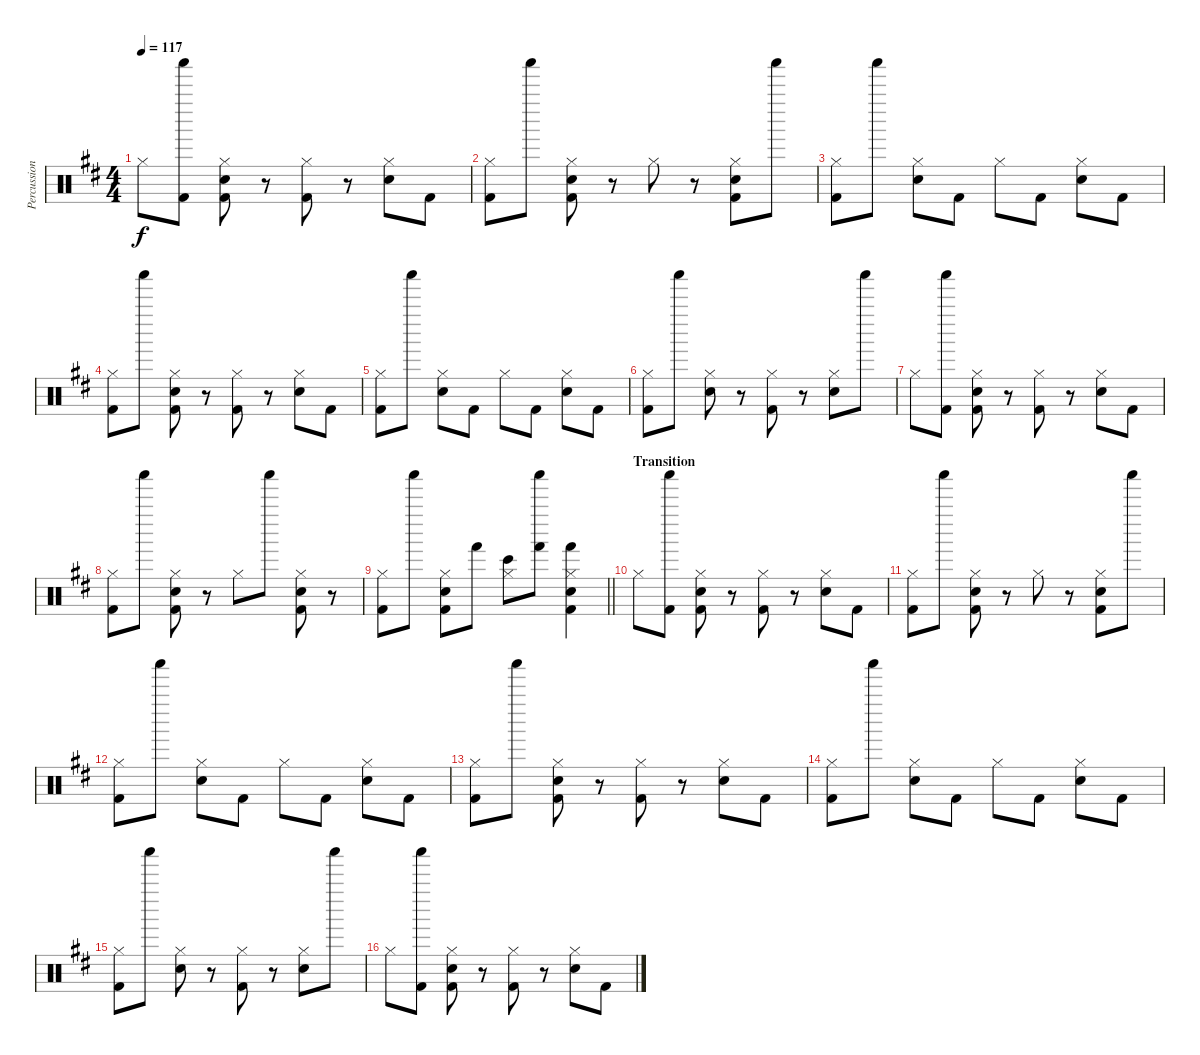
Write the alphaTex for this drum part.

\track ("Percussion" "Percussion") {instrument percussion}
\staff {score}
\articulation defaults
\ts (4 4)
\tempo 117
\clef neutral
\ks d "Hi-Hat (closed)".8{dy f}
("Shaker (hit)" "Kick (hit) 2").8 ("Hi-Hat (closed)" "Snare (hit) 2" "Kick (hit) 2").8 r.8 ("Hi-Hat (closed)" "Kick (hit) 2").8 r.8 ("Hi-Hat (closed)" "Snare (hit) 2").8 "Kick (hit) 2".8 |
("Hi-Hat (closed)" "Kick (hit) 2").8 "Shaker (hit)".8 ("Hi-Hat (closed)" "Snare (hit) 2" "Kick (hit) 2").8 r.8 "Hi-Hat (closed)".8 r.8 ("Hi-Hat (closed)" "Snare (hit) 2" "Kick (hit) 2").8 "Shaker (hit)".8 |
("Hi-Hat (closed)" "Kick (hit) 2").8 "Shaker (hit)".8 ("Hi-Hat (closed)" "Snare (hit) 2").8 "Kick (hit) 2".8 "Hi-Hat (closed)".8 "Kick (hit) 2".8 ("Hi-Hat (closed)" "Snare (hit) 2").8 "Kick (hit) 2".8 |
("Hi-Hat (closed)" "Kick (hit) 2").8 "Shaker (hit)".8 ("Hi-Hat (closed)" "Snare (hit) 2" "Kick (hit) 2").8 r.8 ("Hi-Hat (closed)" "Kick (hit) 2").8 r.8 ("Hi-Hat (closed)" "Snare (hit) 2").8 "Kick (hit) 2".8 |
("Hi-Hat (closed)" "Kick (hit) 2").8 "Shaker (hit)".8 ("Hi-Hat (closed)" "Snare (hit) 2").8 "Kick (hit) 2".8 "Hi-Hat (closed)".8 "Kick (hit) 2".8 ("Hi-Hat (closed)" "Snare (hit) 2").8 "Kick (hit) 2".8 |
("Hi-Hat (closed)" "Kick (hit) 2").8 "Shaker (hit)".8 ("Hi-Hat (closed)" "Snare (hit) 2").8 r.8 ("Hi-Hat (closed)" "Kick (hit) 2").8 r.8 ("Hi-Hat (closed)" "Snare (hit) 2").8 "Shaker (hit)".8 |
"Hi-Hat (closed)".8 ("Shaker (hit)" "Kick (hit) 2").8 ("Hi-Hat (closed)" "Snare (hit) 2" "Kick (hit) 2").8 r.8 ("Hi-Hat (closed)" "Kick (hit) 2").8 r.8 ("Hi-Hat (closed)" "Snare (hit) 2").8 "Kick (hit) 2".8 |
("Hi-Hat (closed)" "Kick (hit) 2").8 "Shaker (hit)".8 ("Hi-Hat (closed)" "Snare (hit) 2" "Kick (hit) 2").8 r.8 "Hi-Hat (closed)".8 "Shaker (hit)".8 ("Hi-Hat (closed)" "Snare (hit) 2" "Kick (hit) 2").8 r.8 |
\barLineRight lightlight
("Hi-Hat (closed)" "Kick (hit) 2").8 "Shaker (hit)".8 ("Hi-Hat (closed)" "Snare (hit) 2" "Kick (hit) 2").8 "Hand (hit)".8 ("Hi-Hat (closed)" "Bongo High (hit)").8 ("Shaker (hit)" "Hand (hit)").8 ("Hi-Hat (closed)" "Hand (hit)" "Snare (hit) 2" "Kick (hit) 2").4 |
\section ("" "Transition")
"Hi-Hat (closed)".8 ("Shaker (hit)" "Kick (hit) 2").8 ("Hi-Hat (closed)" "Snare (hit) 2" "Kick (hit) 2").8 r.8 ("Hi-Hat (closed)" "Kick (hit) 2").8 r.8 ("Hi-Hat (closed)" "Snare (hit) 2").8 "Kick (hit) 2".8 |
("Hi-Hat (closed)" "Kick (hit) 2").8 "Shaker (hit)".8 ("Hi-Hat (closed)" "Snare (hit) 2" "Kick (hit) 2").8 r.8 "Hi-Hat (closed)".8 r.8 ("Hi-Hat (closed)" "Snare (hit) 2" "Kick (hit) 2").8 "Shaker (hit)".8 |
("Hi-Hat (closed)" "Kick (hit) 2").8 "Shaker (hit)".8 ("Hi-Hat (closed)" "Snare (hit) 2").8 "Kick (hit) 2".8 "Hi-Hat (closed)".8 "Kick (hit) 2".8 ("Hi-Hat (closed)" "Snare (hit) 2").8 "Kick (hit) 2".8 |
("Hi-Hat (closed)" "Kick (hit) 2").8 "Shaker (hit)".8 ("Hi-Hat (closed)" "Snare (hit) 2" "Kick (hit) 2").8 r.8 ("Hi-Hat (closed)" "Kick (hit) 2").8 r.8 ("Hi-Hat (closed)" "Snare (hit) 2").8 "Kick (hit) 2".8 |
("Hi-Hat (closed)" "Kick (hit) 2").8 "Shaker (hit)".8 ("Hi-Hat (closed)" "Snare (hit) 2").8 "Kick (hit) 2".8 "Hi-Hat (closed)".8 "Kick (hit) 2".8 ("Hi-Hat (closed)" "Snare (hit) 2").8 "Kick (hit) 2".8 |
("Hi-Hat (closed)" "Kick (hit) 2").8 "Shaker (hit)".8 ("Hi-Hat (closed)" "Snare (hit) 2").8 r.8 ("Hi-Hat (closed)" "Kick (hit) 2").8 r.8 ("Hi-Hat (closed)" "Snare (hit) 2").8 "Shaker (hit)".8 |
"Hi-Hat (closed)".8 ("Shaker (hit)" "Kick (hit) 2").8 ("Hi-Hat (closed)" "Snare (hit) 2" "Kick (hit) 2").8 r.8 ("Hi-Hat (closed)" "Kick (hit) 2").8 r.8 ("Hi-Hat (closed)" "Snare (hit) 2").8 "Kick (hit) 2".8
